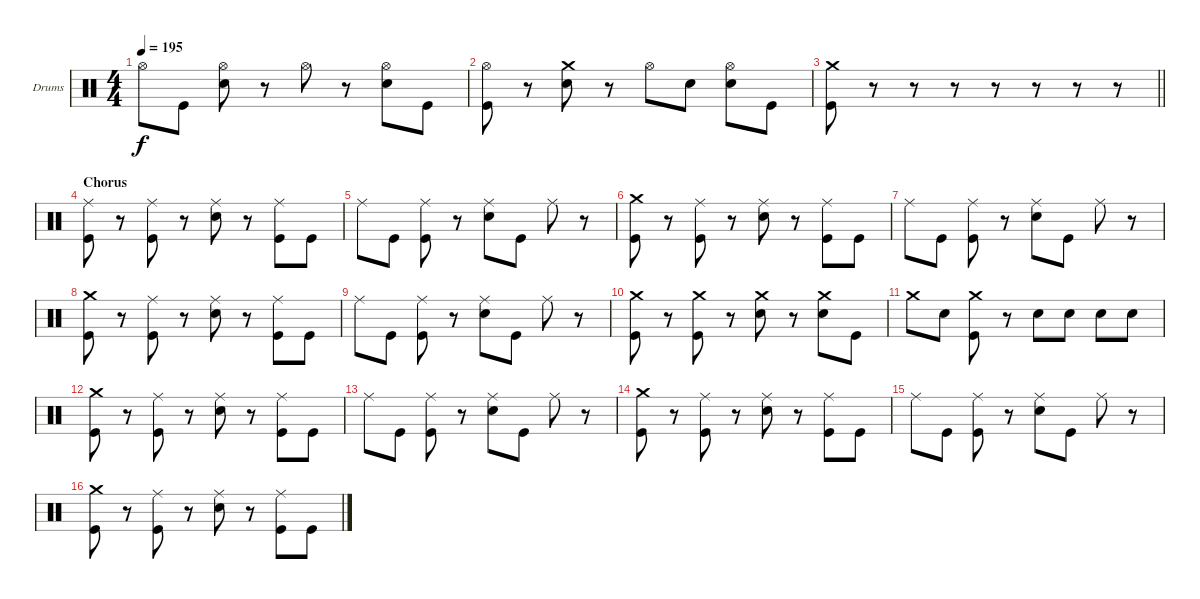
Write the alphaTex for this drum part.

\bracketExtendMode groupsimilarinstruments
\firstSystemTrackNameOrientation horizontal
\otherSystemsTrackNameOrientation horizontal
\track ("Drumkit" "Drums") {instrument percussion}
\staff {score}
\articulation defaults
\ts (4 4)
\tempo 195
\clef neutral
\ks c "Hi-Hat (open)".8{dy f} "Kick (hit)".8
("Hi-Hat (open)" "Snare (hit) 2").8 r.8 "Hi-Hat (open)".8 r.8 ("Hi-Hat (open)" "Snare (hit) 2").8 "Kick (hit)".8 |
("Hi-Hat (open)" "Kick (hit)").8 r.8 ("Crash medium (hit)" "Snare (hit) 2").8 r.8 "Hi-Hat (open)".8 "Snare (hit) 2".8 ("Hi-Hat (open)" "Snare (hit) 2").8 "Kick (hit)".8 |
\barLineRight lightlight
("Crash medium (hit)" "Kick (hit)").8 r.8 r.8 r.8 r.8 r.8 r.8 r.8 |
\section ("" "Chorus")
("Ride (middle)" "Kick (hit)").8 r.8 ("Ride (middle)" "Kick (hit)").8 r.8 ("Ride (middle)" "Snare (hit) 2").8 r.8 ("Ride (middle)" "Kick (hit)").8 "Kick (hit)".8 |
"Ride (middle)".8 "Kick (hit)".8 ("Ride (middle)" "Kick (hit)").8 r.8 ("Ride (middle)" "Snare (hit) 2").8 "Kick (hit)".8 "Ride (middle)".8 r.8 |
("Crash medium (hit)" "Kick (hit)").8 r.8 ("Ride (middle)" "Kick (hit)").8 r.8 ("Ride (middle)" "Snare (hit) 2").8 r.8 ("Ride (middle)" "Kick (hit)").8 "Kick (hit)".8 |
"Ride (middle)".8 "Kick (hit)".8 ("Ride (middle)" "Kick (hit)").8 r.8 ("Ride (middle)" "Snare (hit) 2").8 "Kick (hit)".8 "Ride (middle)".8 r.8 |
("Crash medium (hit)" "Kick (hit)").8 r.8 ("Ride (middle)" "Kick (hit)").8 r.8 ("Ride (middle)" "Snare (hit) 2").8 r.8 ("Ride (middle)" "Kick (hit)").8 "Kick (hit)".8 |
"Ride (middle)".8 "Kick (hit)".8 ("Ride (middle)" "Kick (hit)").8 r.8 ("Ride (middle)" "Snare (hit) 2").8 "Kick (hit)".8 "Ride (middle)".8 r.8 |
("Crash medium (hit)" "Kick (hit)").8 r.8 ("Crash medium (hit)" "Kick (hit)").8 r.8 ("Crash medium (hit)" "Snare (hit) 2").8 r.8 ("Crash medium (hit)" "Snare (hit) 2").8 "Kick (hit)".8 |
"Crash medium (hit)".8 "Snare (hit) 2".8 ("Crash medium (hit)" "Kick (hit)").8 r.8 "Snare (hit) 2".8 "Snare (hit) 2".8 "Snare (hit) 2".8 "Snare (hit) 2".8 |
("Crash medium (hit)" "Kick (hit)").8 r.8 ("Ride (middle)" "Kick (hit)").8 r.8 ("Ride (middle)" "Snare (hit) 2").8 r.8 ("Ride (middle)" "Kick (hit)").8 "Kick (hit)".8 |
"Ride (middle)".8 "Kick (hit)".8 ("Ride (middle)" "Kick (hit)").8 r.8 ("Ride (middle)" "Snare (hit) 2").8 "Kick (hit)".8 "Ride (middle)".8 r.8 |
("Crash medium (hit)" "Kick (hit)").8 r.8 ("Ride (middle)" "Kick (hit)").8 r.8 ("Ride (middle)" "Snare (hit) 2").8 r.8 ("Ride (middle)" "Kick (hit)").8 "Kick (hit)".8 |
"Ride (middle)".8 "Kick (hit)".8 ("Ride (middle)" "Kick (hit)").8 r.8 ("Ride (middle)" "Snare (hit) 2").8 "Kick (hit)".8 "Ride (middle)".8 r.8 |
("Crash medium (hit)" "Kick (hit)").8 r.8 ("Ride (middle)" "Kick (hit)").8 r.8 ("Ride (middle)" "Snare (hit) 2").8 r.8 ("Ride (middle)" "Kick (hit)").8 "Kick (hit)".8
